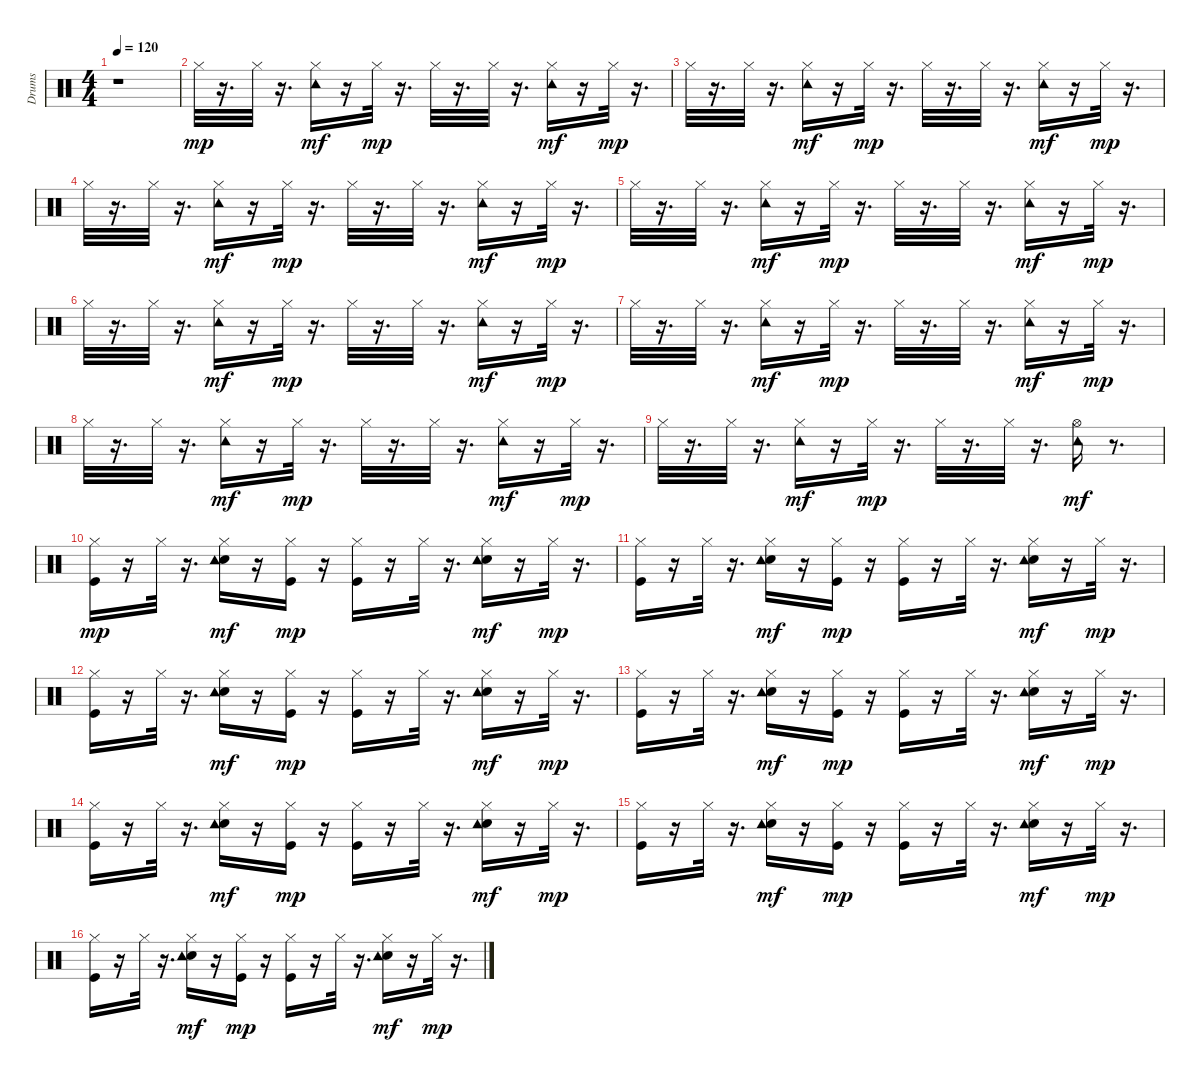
\track ("Drums" "Drums") {instrument percussion}
\staff {score}
\articulation defaults
\ts (4 4)
\tempo 120
\clef neutral
\ks c
r.1{dy mp} |
"Hi-Hat (closed)".32 r.16{d} "Hi-Hat (closed)".32 r.16{d} ("Hi-Hat (closed)" "Tambourine (hit)").16{dy mf} r.16 "Hi-Hat (closed)".32{dy mp} r.16{d} "Hi-Hat (closed)".32 r.16{d} "Hi-Hat (closed)".32 r.16{d} ("Hi-Hat (closed)" "Tambourine (hit)").16{dy mf} r.16 "Hi-Hat (closed)".32{dy mp} r.16{d} |
"Hi-Hat (closed)".32 r.16{d} "Hi-Hat (closed)".32 r.16{d} ("Hi-Hat (closed)" "Tambourine (hit)").16{dy mf} r.16 "Hi-Hat (closed)".32{dy mp} r.16{d} "Hi-Hat (closed)".32 r.16{d} "Hi-Hat (closed)".32 r.16{d} ("Hi-Hat (closed)" "Tambourine (hit)").16{dy mf} r.16 "Hi-Hat (closed)".32{dy mp} r.16{d} |
"Hi-Hat (closed)".32 r.16{d} "Hi-Hat (closed)".32 r.16{d} ("Hi-Hat (closed)" "Tambourine (hit)").16{dy mf} r.16 "Hi-Hat (closed)".32{dy mp} r.16{d} "Hi-Hat (closed)".32 r.16{d} "Hi-Hat (closed)".32 r.16{d} ("Hi-Hat (closed)" "Tambourine (hit)").16{dy mf} r.16 "Hi-Hat (closed)".32{dy mp} r.16{d} |
"Hi-Hat (closed)".32 r.16{d} "Hi-Hat (closed)".32 r.16{d} ("Hi-Hat (closed)" "Tambourine (hit)").16{dy mf} r.16 "Hi-Hat (closed)".32{dy mp} r.16{d} "Hi-Hat (closed)".32 r.16{d} "Hi-Hat (closed)".32 r.16{d} ("Hi-Hat (closed)" "Tambourine (hit)").16{dy mf} r.16 "Hi-Hat (closed)".32{dy mp} r.16{d} |
"Hi-Hat (closed)".32 r.16{d} "Hi-Hat (closed)".32 r.16{d} ("Hi-Hat (closed)" "Tambourine (hit)").16{dy mf} r.16 "Hi-Hat (closed)".32{dy mp} r.16{d} "Hi-Hat (closed)".32 r.16{d} "Hi-Hat (closed)".32 r.16{d} ("Hi-Hat (closed)" "Tambourine (hit)").16{dy mf} r.16 "Hi-Hat (closed)".32{dy mp} r.16{d} |
"Hi-Hat (closed)".32 r.16{d} "Hi-Hat (closed)".32 r.16{d} ("Hi-Hat (closed)" "Tambourine (hit)").16{dy mf} r.16 "Hi-Hat (closed)".32{dy mp} r.16{d} "Hi-Hat (closed)".32 r.16{d} "Hi-Hat (closed)".32 r.16{d} ("Hi-Hat (closed)" "Tambourine (hit)").16{dy mf} r.16 "Hi-Hat (closed)".32{dy mp} r.16{d} |
"Hi-Hat (closed)".32 r.16{d} "Hi-Hat (closed)".32 r.16{d} ("Hi-Hat (closed)" "Tambourine (hit)").16{dy mf} r.16 "Hi-Hat (closed)".32{dy mp} r.16{d} "Hi-Hat (closed)".32 r.16{d} "Hi-Hat (closed)".32 r.16{d} ("Hi-Hat (closed)" "Tambourine (hit)").16{dy mf} r.16 "Hi-Hat (closed)".32{dy mp} r.16{d} |
"Hi-Hat (closed)".32 r.16{d} "Hi-Hat (closed)".32 r.16{d} ("Hi-Hat (closed)" "Tambourine (hit)").16{dy mf} r.16 "Hi-Hat (closed)".32{dy mp} r.16{d} "Hi-Hat (closed)".32 r.16{d} "Hi-Hat (closed)".32 r.16{d} ("Hi-Hat (open)" "Tambourine (hit)").16{dy mf} r.8{d} |
("Kick (hit)" "Hi-Hat (closed)").16{dy mp} r.16 "Hi-Hat (closed)".32 r.16{d} ("Electric Snare (hit)" "Hi-Hat (closed)" "Tambourine (hit)").16{dy mf} r.16 ("Kick (hit)" "Hi-Hat (closed)").16{dy mp} r.16 ("Kick (hit)" "Hi-Hat (closed)").16 r.16 "Hi-Hat (closed)".32 r.16{d} ("Electric Snare (hit)" "Hi-Hat (closed)" "Tambourine (hit)").16{dy mf} r.16 "Hi-Hat (closed)".32{dy mp} r.16{d} |
("Kick (hit)" "Hi-Hat (closed)").16 r.16 "Hi-Hat (closed)".32 r.16{d} ("Electric Snare (hit)" "Hi-Hat (closed)" "Tambourine (hit)").16{dy mf} r.16 ("Kick (hit)" "Hi-Hat (closed)").16{dy mp} r.16 ("Kick (hit)" "Hi-Hat (closed)").16 r.16 "Hi-Hat (closed)".32 r.16{d} ("Electric Snare (hit)" "Hi-Hat (closed)" "Tambourine (hit)").16{dy mf} r.16 "Hi-Hat (closed)".32{dy mp} r.16{d} |
("Kick (hit)" "Hi-Hat (closed)").16 r.16 "Hi-Hat (closed)".32 r.16{d} ("Electric Snare (hit)" "Hi-Hat (closed)" "Tambourine (hit)").16{dy mf} r.16 ("Kick (hit)" "Hi-Hat (closed)").16{dy mp} r.16 ("Kick (hit)" "Hi-Hat (closed)").16 r.16 "Hi-Hat (closed)".32 r.16{d} ("Electric Snare (hit)" "Hi-Hat (closed)" "Tambourine (hit)").16{dy mf} r.16 "Hi-Hat (closed)".32{dy mp} r.16{d} |
("Kick (hit)" "Hi-Hat (closed)").16 r.16 "Hi-Hat (closed)".32 r.16{d} ("Electric Snare (hit)" "Hi-Hat (closed)" "Tambourine (hit)").16{dy mf} r.16 ("Kick (hit)" "Hi-Hat (closed)").16{dy mp} r.16 ("Kick (hit)" "Hi-Hat (closed)").16 r.16 "Hi-Hat (closed)".32 r.16{d} ("Electric Snare (hit)" "Hi-Hat (closed)" "Tambourine (hit)").16{dy mf} r.16 "Hi-Hat (closed)".32{dy mp} r.16{d} |
("Kick (hit)" "Hi-Hat (closed)").16 r.16 "Hi-Hat (closed)".32 r.16{d} ("Electric Snare (hit)" "Hi-Hat (closed)" "Tambourine (hit)").16{dy mf} r.16 ("Kick (hit)" "Hi-Hat (closed)").16{dy mp} r.16 ("Kick (hit)" "Hi-Hat (closed)").16 r.16 "Hi-Hat (closed)".32 r.16{d} ("Electric Snare (hit)" "Hi-Hat (closed)" "Tambourine (hit)").16{dy mf} r.16 "Hi-Hat (closed)".32{dy mp} r.16{d} |
("Kick (hit)" "Hi-Hat (closed)").16 r.16 "Hi-Hat (closed)".32 r.16{d} ("Electric Snare (hit)" "Hi-Hat (closed)" "Tambourine (hit)").16{dy mf} r.16 ("Kick (hit)" "Hi-Hat (closed)").16{dy mp} r.16 ("Kick (hit)" "Hi-Hat (closed)").16 r.16 "Hi-Hat (closed)".32 r.16{d} ("Electric Snare (hit)" "Hi-Hat (closed)" "Tambourine (hit)").16{dy mf} r.16 "Hi-Hat (closed)".32{dy mp} r.16{d} |
("Kick (hit)" "Hi-Hat (closed)").16 r.16 "Hi-Hat (closed)".32 r.16{d} ("Electric Snare (hit)" "Hi-Hat (closed)" "Tambourine (hit)").16{dy mf} r.16 ("Kick (hit)" "Hi-Hat (closed)").16{dy mp} r.16 ("Kick (hit)" "Hi-Hat (closed)").16 r.16 "Hi-Hat (closed)".32 r.16{d} ("Electric Snare (hit)" "Hi-Hat (closed)" "Tambourine (hit)").16{dy mf} r.16 "Hi-Hat (closed)".32{dy mp} r.16{d}
